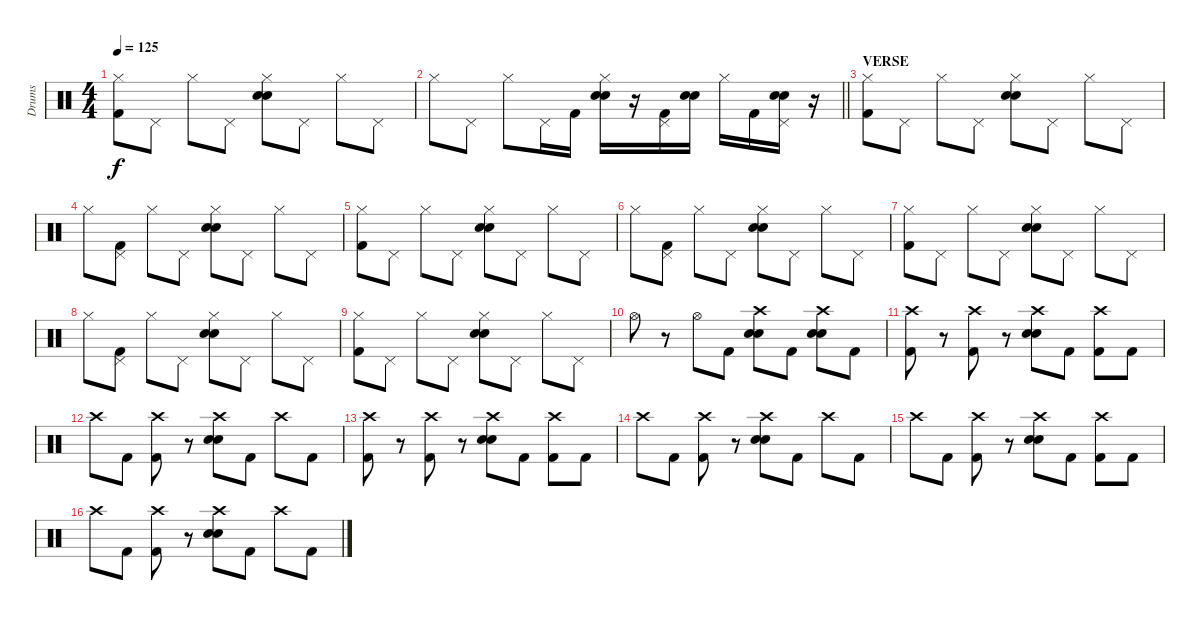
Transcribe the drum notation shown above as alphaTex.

\track ("Drums" "Drums") {instrument percussion}
\staff {score}
\articulation defaults
\ts (4 4)
\tempo 125
\clef neutral
\ks c
("Hi-Hat (closed)" "Kick (hit) 2").8{dy f} "Pedal Hi-Hat (hit)".8 "Hi-Hat (closed)".8 "Pedal Hi-Hat (hit)".8 ("Hi-Hat (closed)" "Snare (hit) 2" "Electric Snare (hit)").8 "Pedal Hi-Hat (hit)".8 "Hi-Hat (closed)".8 "Pedal Hi-Hat (hit)".8 |
\barLineRight lightlight "Hi-Hat (closed)".8 "Pedal Hi-Hat (hit)".8 "Hi-Hat (closed)".8 "Pedal Hi-Hat (hit)".16 "Kick (hit) 2".16
("Hi-Hat (closed)" "Snare (hit) 2" "Electric Snare (hit)").16 r.16 ("Pedal Hi-Hat (hit)" "Kick (hit) 2").16 ("Snare (hit) 2" "Electric Snare (hit)").16 "Hi-Hat (closed)".16 "Kick (hit) 2".16 ("Pedal Hi-Hat (hit)" "Snare (hit) 2" "Electric Snare (hit)").16 r.16 |
\section ("" "VERSE")
("Hi-Hat (closed)" "Kick (hit) 2").8 "Pedal Hi-Hat (hit)".8 "Hi-Hat (closed)".8 "Pedal Hi-Hat (hit)".8 ("Hi-Hat (closed)" "Snare (hit) 2" "Electric Snare (hit)").8 "Pedal Hi-Hat (hit)".8 "Hi-Hat (closed)".8 "Pedal Hi-Hat (hit)".8 |
"Hi-Hat (closed)".8 ("Pedal Hi-Hat (hit)" "Kick (hit) 2").8 "Hi-Hat (closed)".8 "Pedal Hi-Hat (hit)".8 ("Hi-Hat (closed)" "Snare (hit) 2" "Electric Snare (hit)").8 "Pedal Hi-Hat (hit)".8 "Hi-Hat (closed)".8 "Pedal Hi-Hat (hit)".8 |
("Hi-Hat (closed)" "Kick (hit) 2").8 "Pedal Hi-Hat (hit)".8 "Hi-Hat (closed)".8 "Pedal Hi-Hat (hit)".8 ("Hi-Hat (closed)" "Snare (hit) 2" "Electric Snare (hit)").8 "Pedal Hi-Hat (hit)".8 "Hi-Hat (closed)".8 "Pedal Hi-Hat (hit)".8 |
"Hi-Hat (closed)".8 ("Pedal Hi-Hat (hit)" "Kick (hit) 2").8 "Hi-Hat (closed)".8 "Pedal Hi-Hat (hit)".8 ("Hi-Hat (closed)" "Snare (hit) 2" "Electric Snare (hit)").8 "Pedal Hi-Hat (hit)".8 "Hi-Hat (closed)".8 "Pedal Hi-Hat (hit)".8 |
("Hi-Hat (closed)" "Kick (hit) 2").8 "Pedal Hi-Hat (hit)".8 "Hi-Hat (closed)".8 "Pedal Hi-Hat (hit)".8 ("Hi-Hat (closed)" "Snare (hit) 2" "Electric Snare (hit)").8 "Pedal Hi-Hat (hit)".8 "Hi-Hat (closed)".8 "Pedal Hi-Hat (hit)".8 |
"Hi-Hat (closed)".8 ("Pedal Hi-Hat (hit)" "Kick (hit) 2").8 "Hi-Hat (closed)".8 "Pedal Hi-Hat (hit)".8 ("Hi-Hat (closed)" "Snare (hit) 2" "Electric Snare (hit)").8 "Pedal Hi-Hat (hit)".8 "Hi-Hat (closed)".8 "Pedal Hi-Hat (hit)".8 |
("Hi-Hat (closed)" "Kick (hit) 2").8 "Pedal Hi-Hat (hit)".8 "Hi-Hat (closed)".8 "Pedal Hi-Hat (hit)".8 ("Hi-Hat (closed)" "Snare (hit) 2" "Electric Snare (hit)").8 "Pedal Hi-Hat (hit)".8 "Hi-Hat (closed)".8 "Pedal Hi-Hat (hit)".8 |
"Hi-Hat (open)".8 r.8 "Hi-Hat (open)".8 "Kick (hit) 2".8 ("Crash high (hit)" "Snare (hit) 2" "Electric Snare (hit)").8 "Kick (hit) 2".8 ("Crash high (hit)" "Snare (hit) 2" "Electric Snare (hit)").8 "Kick (hit) 2".8 |
("Crash high (hit)" "Kick (hit) 2").8 r.8 ("Crash high (hit)" "Kick (hit) 2").8 r.8 ("Crash high (hit)" "Snare (hit) 2" "Electric Snare (hit)").8 "Kick (hit) 2".8 ("Crash high (hit)" "Kick (hit) 2").8 "Kick (hit) 2".8 |
"Crash high (hit)".8 "Kick (hit) 2".8 ("Crash high (hit)" "Kick (hit) 2").8 r.8 ("Crash high (hit)" "Snare (hit) 2" "Electric Snare (hit)").8 "Kick (hit) 2".8 "Crash high (hit)".8 "Kick (hit) 2".8 |
("Crash high (hit)" "Kick (hit) 2").8 r.8 ("Crash high (hit)" "Kick (hit) 2").8 r.8 ("Crash high (hit)" "Snare (hit) 2" "Electric Snare (hit)").8 "Kick (hit) 2".8 ("Crash high (hit)" "Kick (hit) 2").8 "Kick (hit) 2".8 |
"Crash high (hit)".8 "Kick (hit) 2".8 ("Crash high (hit)" "Kick (hit) 2").8 r.8 ("Crash high (hit)" "Snare (hit) 2" "Electric Snare (hit)").8 "Kick (hit) 2".8 "Crash high (hit)".8 "Kick (hit) 2".8 |
"Crash high (hit)".8 "Kick (hit) 2".8 ("Crash high (hit)" "Kick (hit) 2").8 r.8 ("Crash high (hit)" "Snare (hit) 2" "Electric Snare (hit)").8 "Kick (hit) 2".8 ("Crash high (hit)" "Kick (hit) 2").8 "Kick (hit) 2".8 |
"Crash high (hit)".8 "Kick (hit) 2".8 ("Crash high (hit)" "Kick (hit) 2").8 r.8 ("Crash high (hit)" "Snare (hit) 2" "Electric Snare (hit)").8 "Kick (hit) 2".8 "Crash high (hit)".8 "Kick (hit) 2".8
